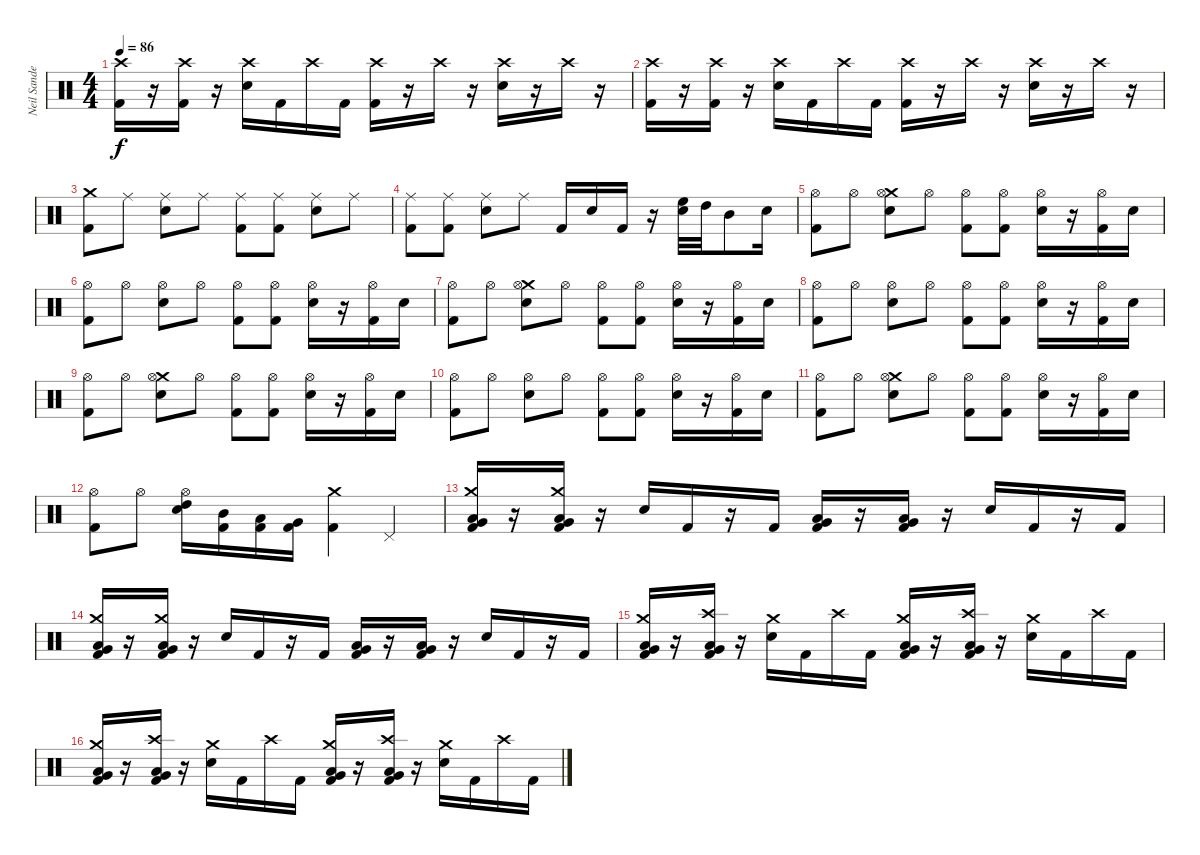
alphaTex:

\track ("Neil Sanderson" "Neil Sande") {instrument percussion}
\staff {score}
\articulation defaults
\ts (4 4)
\tempo 86
\clef neutral
\ks c
("Kick (hit) 2" "Crash high (hit)").16{dy f} r.16 ("Kick (hit) 2" "Crash high (hit)").16 r.16 ("Snare (hit) 2" "Crash high (hit)").16 "Kick (hit) 2".16 "Crash high (hit)".16 "Kick (hit) 2".16 ("Kick (hit) 2" "Crash high (hit)").16 r.16 "Crash high (hit)".16 r.16 ("Snare (hit) 2" "Crash high (hit)").16 r.16 "Crash high (hit)".16 r.16 |
("Kick (hit) 2" "Crash high (hit)").16 r.16 ("Kick (hit) 2" "Crash high (hit)").16 r.16 ("Snare (hit) 2" "Crash high (hit)").16 "Kick (hit) 2".16 "Crash high (hit)".16 "Kick (hit) 2".16 ("Kick (hit) 2" "Crash high (hit)").16 r.16 "Crash high (hit)".16 r.16 ("Snare (hit) 2" "Crash high (hit)").16 r.16 "Crash high (hit)".16 r.16 |
("Kick (hit) 2" "Crash medium (hit)").8 "Ride (middle)".8 ("Snare (hit) 2" "Ride (middle)").8 "Ride (middle)".8 ("Kick (hit) 2" "Ride (middle)").8 ("Kick (hit) 2" "Ride (middle)").8 ("Snare (hit) 2" "Ride (middle)").8 "Ride (middle)".8 |
("Kick (hit) 2" "Ride (middle)").8 ("Kick (hit) 2" "Ride (middle)").8 ("Snare (hit) 2" "Ride (middle)").8 "Ride (middle)".8 "Kick (hit) 2".16 "Snare (hit) 2".16 "Kick (hit) 2".16 r.16 ("Snare (hit) 2" "High Floor Tom (hit)").32 "High Tom (hit)".32 "Mid Tom (hit)".8 "Snare (hit) 2".16 |
("Kick (hit) 2" "Hi-Hat (open)").8 "Hi-Hat (open)".8 ("Snare (hit) 2" "Crash medium (hit)" "Hi-Hat (open)").8 "Hi-Hat (open)".8 ("Kick (hit) 2" "Hi-Hat (open)").8 ("Kick (hit) 2" "Hi-Hat (open)").8 ("Snare (hit) 2" "Hi-Hat (open)").16 r.16 ("Kick (hit) 2" "Hi-Hat (open)").16 "Snare (hit) 2".16 |
("Kick (hit) 2" "Hi-Hat (open)").8 "Hi-Hat (open)".8 ("Snare (hit) 2" "Hi-Hat (open)").8 "Hi-Hat (open)".8 ("Kick (hit) 2" "Hi-Hat (open)").8 ("Kick (hit) 2" "Hi-Hat (open)").8 ("Snare (hit) 2" "Hi-Hat (open)").16 r.16 ("Kick (hit) 2" "Hi-Hat (open)").16 "Snare (hit) 2".16 |
("Kick (hit) 2" "Hi-Hat (open)").8 "Hi-Hat (open)".8 ("Snare (hit) 2" "Crash medium (hit)" "Hi-Hat (open)").8 "Hi-Hat (open)".8 ("Kick (hit) 2" "Hi-Hat (open)").8 ("Kick (hit) 2" "Hi-Hat (open)").8 ("Snare (hit) 2" "Hi-Hat (open)").16 r.16 ("Kick (hit) 2" "Hi-Hat (open)").16 "Snare (hit) 2".16 |
("Kick (hit) 2" "Hi-Hat (open)").8 "Hi-Hat (open)".8 ("Snare (hit) 2" "Hi-Hat (open)").8 "Hi-Hat (open)".8 ("Kick (hit) 2" "Hi-Hat (open)").8 ("Kick (hit) 2" "Hi-Hat (open)").8 ("Snare (hit) 2" "Hi-Hat (open)").16 r.16 ("Kick (hit) 2" "Hi-Hat (open)").16 "Snare (hit) 2".16 |
("Kick (hit) 2" "Hi-Hat (open)").8 "Hi-Hat (open)".8 ("Snare (hit) 2" "Crash medium (hit)" "Hi-Hat (open)").8 "Hi-Hat (open)".8 ("Kick (hit) 2" "Hi-Hat (open)").8 ("Kick (hit) 2" "Hi-Hat (open)").8 ("Snare (hit) 2" "Hi-Hat (open)").16 r.16 ("Kick (hit) 2" "Hi-Hat (open)").16 "Snare (hit) 2".16 |
("Kick (hit) 2" "Hi-Hat (open)").8 "Hi-Hat (open)".8 ("Snare (hit) 2" "Hi-Hat (open)").8 "Hi-Hat (open)".8 ("Kick (hit) 2" "Hi-Hat (open)").8 ("Kick (hit) 2" "Hi-Hat (open)").8 ("Snare (hit) 2" "Hi-Hat (open)").16 r.16 ("Kick (hit) 2" "Hi-Hat (open)").16 "Snare (hit) 2".16 |
("Kick (hit) 2" "Hi-Hat (open)").8 "Hi-Hat (open)".8 ("Snare (hit) 2" "Crash medium (hit)" "Hi-Hat (open)").8 "Hi-Hat (open)".8 ("Kick (hit) 2" "Hi-Hat (open)").8 ("Kick (hit) 2" "Hi-Hat (open)").8 ("Snare (hit) 2" "Hi-Hat (open)").16 r.16 ("Kick (hit) 2" "Hi-Hat (open)").16 "Snare (hit) 2".16 |
("Kick (hit) 2" "Hi-Hat (open)").8 "Hi-Hat (open)".8 ("Snare (hit) 2" "High Tom (hit)" "Hi-Hat (open)").16 ("Kick (hit) 2" "Mid Tom (hit)").16 ("Kick (hit) 2" "Low Tom (hit)").16 ("Kick (hit) 2" "Very Low Tom (hit)").16 ("Kick (hit) 2" "Crash medium (hit)").4 "Pedal Hi-Hat (hit)".4 |
("Low Floor Tom (hit)" "Very Low Tom (hit)" "Kick (hit) 2" "Crash medium (hit)").16 r.16 ("Low Floor Tom (hit)" "Very Low Tom (hit)" "Kick (hit) 2" "Crash medium (hit)").16 r.16 "Snare (hit) 2".16 "Kick (hit) 2".16 r.16 "Kick (hit) 2".16 ("Low Floor Tom (hit)" "Very Low Tom (hit)" "Kick (hit) 2").16 r.16 ("Low Floor Tom (hit)" "Very Low Tom (hit)" "Kick (hit) 2").16 r.16 "Snare (hit) 2".16 "Kick (hit) 2".16 r.16 "Kick (hit) 2".16 |
("Low Floor Tom (hit)" "Very Low Tom (hit)" "Kick (hit) 2" "Crash medium (hit)").16 r.16 ("Low Floor Tom (hit)" "Very Low Tom (hit)" "Kick (hit) 2" "Crash medium (hit)").16 r.16 "Snare (hit) 2".16 "Kick (hit) 2".16 r.16 "Kick (hit) 2".16 ("Low Floor Tom (hit)" "Very Low Tom (hit)" "Kick (hit) 2").16 r.16 ("Low Floor Tom (hit)" "Very Low Tom (hit)" "Kick (hit) 2").16 r.16 "Snare (hit) 2".16 "Kick (hit) 2".16 r.16 "Kick (hit) 2".16 |
("Low Floor Tom (hit)" "Very Low Tom (hit)" "Kick (hit) 2" "Crash medium (hit)").16 r.16 ("Low Floor Tom (hit)" "Very Low Tom (hit)" "Kick (hit) 2" "Crash high (hit)").16 r.16 ("Snare (hit) 2" "Crash medium (hit)").16 "Kick (hit) 2".16 "Crash high (hit)".16 "Kick (hit) 2".16 ("Low Floor Tom (hit)" "Very Low Tom (hit)" "Kick (hit) 2" "Crash medium (hit)").16 r.16 ("Low Floor Tom (hit)" "Very Low Tom (hit)" "Kick (hit) 2" "Crash high (hit)").16 r.16 ("Snare (hit) 2" "Crash medium (hit)").16 "Kick (hit) 2".16 "Crash high (hit)".16 "Kick (hit) 2".16 |
("Low Floor Tom (hit)" "Very Low Tom (hit)" "Kick (hit) 2" "Crash medium (hit)").16 r.16 ("Low Floor Tom (hit)" "Very Low Tom (hit)" "Kick (hit) 2" "Crash high (hit)").16 r.16 ("Snare (hit) 2" "Crash medium (hit)").16 "Kick (hit) 2".16 "Crash high (hit)".16 "Kick (hit) 2".16 ("Low Floor Tom (hit)" "Very Low Tom (hit)" "Kick (hit) 2" "Crash medium (hit)").16 r.16 ("Low Floor Tom (hit)" "Very Low Tom (hit)" "Kick (hit) 2" "Crash high (hit)").16 r.16 ("Snare (hit) 2" "Crash medium (hit)").16 "Kick (hit) 2".16 "Crash high (hit)".16 "Kick (hit) 2".16
